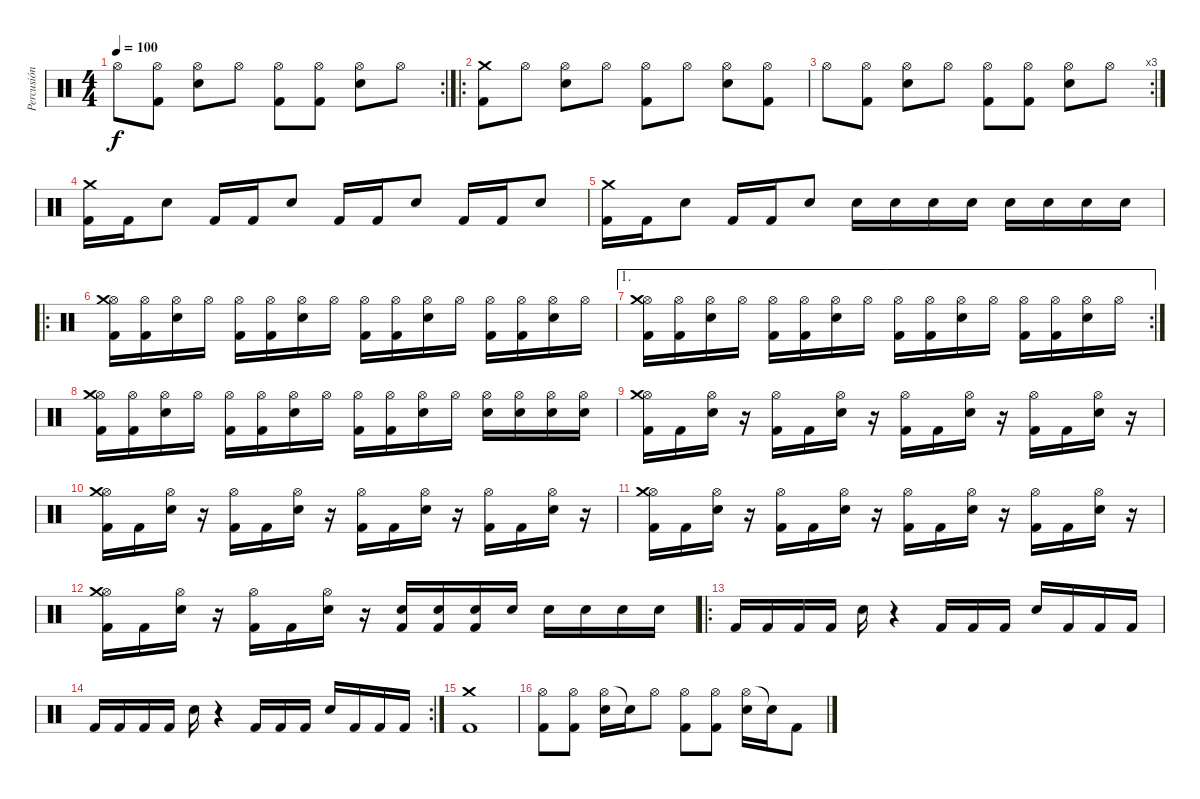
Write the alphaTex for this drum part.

\track ("Percusión" "Percusión") {instrument percussion}
\staff {score}
\articulation defaults
\rc 2
\ts (4 4)
\tempo 100
\clef neutral
\ks c "Hi-Hat (open)".8{dy f}
("Kick (hit) 2" "Hi-Hat (open)").8 ("Snare (hit) 2" "Hi-Hat (open)").8 "Hi-Hat (open)".8 ("Kick (hit) 2" "Hi-Hat (open)").8 ("Kick (hit) 2" "Hi-Hat (open)").8 ("Snare (hit) 2" "Hi-Hat (open)").8 "Hi-Hat (open)".8 |
\ro
("Kick (hit) 2" "Crash medium (hit)").8 "Hi-Hat (open)".8 ("Snare (hit) 2" "Hi-Hat (open)").8 "Hi-Hat (open)".8 ("Kick (hit) 2" "Hi-Hat (open)").8 "Hi-Hat (open)".8 ("Snare (hit) 2" "Hi-Hat (open)").8 ("Kick (hit) 2" "Hi-Hat (open)").8 |
\rc 3 "Hi-Hat (open)".8
("Kick (hit) 2" "Hi-Hat (open)").8 ("Snare (hit) 2" "Hi-Hat (open)").8 "Hi-Hat (open)".8 ("Kick (hit) 2" "Hi-Hat (open)").8 ("Kick (hit) 2" "Hi-Hat (open)").8 ("Snare (hit) 2" "Hi-Hat (open)").8 "Hi-Hat (open)".8 |
("Kick (hit) 2" "Crash medium (hit)").16 "Kick (hit) 2".16 "Snare (hit) 2".8 "Kick (hit) 2".16 "Kick (hit) 2".16 "Snare (hit) 2".8 "Kick (hit) 2".16 "Kick (hit) 2".16 "Snare (hit) 2".8 "Kick (hit) 2".16 "Kick (hit) 2".16 "Snare (hit) 2".8 |
("Kick (hit) 2" "Crash medium (hit)").16 "Kick (hit) 2".16 "Snare (hit) 2".8 "Kick (hit) 2".16 "Kick (hit) 2".16 "Snare (hit) 2".8 "Snare (hit) 2".16 "Snare (hit) 2".16 "Snare (hit) 2".16 "Snare (hit) 2".16 "Snare (hit) 2".16 "Snare (hit) 2".16 "Snare (hit) 2".16 "Snare (hit) 2".16 |
\ro
("Kick (hit) 2" "Hi-Hat (open)" "Crash medium (hit)").16 ("Kick (hit) 2" "Hi-Hat (open)").16 ("Snare (hit) 2" "Hi-Hat (open)").16 "Hi-Hat (open)".16 ("Kick (hit) 2" "Hi-Hat (open)").16 ("Kick (hit) 2" "Hi-Hat (open)").16 ("Snare (hit) 2" "Hi-Hat (open)").16 "Hi-Hat (open)".16 ("Kick (hit) 2" "Hi-Hat (open)").16 ("Kick (hit) 2" "Hi-Hat (open)").16 ("Snare (hit) 2" "Hi-Hat (open)").16 "Hi-Hat (open)".16 ("Kick (hit) 2" "Hi-Hat (open)").16 ("Kick (hit) 2" "Hi-Hat (open)").16 ("Snare (hit) 2" "Hi-Hat (open)").16 "Hi-Hat (open)".16 |
\ae 1
\rc 2
("Kick (hit) 2" "Hi-Hat (open)" "Crash medium (hit)").16 ("Kick (hit) 2" "Hi-Hat (open)").16 ("Snare (hit) 2" "Hi-Hat (open)").16 "Hi-Hat (open)".16 ("Kick (hit) 2" "Hi-Hat (open)").16 ("Kick (hit) 2" "Hi-Hat (open)").16 ("Snare (hit) 2" "Hi-Hat (open)").16 "Hi-Hat (open)".16 ("Kick (hit) 2" "Hi-Hat (open)").16 ("Kick (hit) 2" "Hi-Hat (open)").16 ("Snare (hit) 2" "Hi-Hat (open)").16 "Hi-Hat (open)".16 ("Kick (hit) 2" "Hi-Hat (open)").16 ("Kick (hit) 2" "Hi-Hat (open)").16 ("Snare (hit) 2" "Hi-Hat (open)").16 "Hi-Hat (open)".16 |
("Kick (hit) 2" "Hi-Hat (open)" "Crash medium (hit)").16 ("Kick (hit) 2" "Hi-Hat (open)").16 ("Snare (hit) 2" "Hi-Hat (open)").16 "Hi-Hat (open)".16 ("Kick (hit) 2" "Hi-Hat (open)").16 ("Kick (hit) 2" "Hi-Hat (open)").16 ("Snare (hit) 2" "Hi-Hat (open)").16 "Hi-Hat (open)".16 ("Kick (hit) 2" "Hi-Hat (open)").16 ("Kick (hit) 2" "Hi-Hat (open)").16 ("Snare (hit) 2" "Hi-Hat (open)").16 "Hi-Hat (open)".16 ("Snare (hit) 2" "Hi-Hat (open)").16 ("Snare (hit) 2" "Hi-Hat (open)").16 ("Snare (hit) 2" "Hi-Hat (open)").16 ("Snare (hit) 2" "Hi-Hat (open)").16 |
("Kick (hit) 2" "Hi-Hat (open)" "Crash medium (hit)").16 "Kick (hit) 2".16 ("Snare (hit) 2" "Hi-Hat (open)").16 r.16 ("Kick (hit) 2" "Hi-Hat (open)").16 "Kick (hit) 2".16 ("Snare (hit) 2" "Hi-Hat (open)").16 r.16 ("Kick (hit) 2" "Hi-Hat (open)").16 "Kick (hit) 2".16 ("Snare (hit) 2" "Hi-Hat (open)").16 r.16 ("Kick (hit) 2" "Hi-Hat (open)").16 "Kick (hit) 2".16 ("Snare (hit) 2" "Hi-Hat (open)").16 r.16 |
("Kick (hit) 2" "Hi-Hat (open)" "Crash medium (hit)").16 "Kick (hit) 2".16 ("Snare (hit) 2" "Hi-Hat (open)").16 r.16 ("Kick (hit) 2" "Hi-Hat (open)").16 "Kick (hit) 2".16 ("Snare (hit) 2" "Hi-Hat (open)").16 r.16 ("Kick (hit) 2" "Hi-Hat (open)").16 "Kick (hit) 2".16 ("Snare (hit) 2" "Hi-Hat (open)").16 r.16 ("Kick (hit) 2" "Hi-Hat (open)").16 "Kick (hit) 2".16 ("Snare (hit) 2" "Hi-Hat (open)").16 r.16 |
("Kick (hit) 2" "Hi-Hat (open)" "Crash medium (hit)").16 "Kick (hit) 2".16 ("Snare (hit) 2" "Hi-Hat (open)").16 r.16 ("Kick (hit) 2" "Hi-Hat (open)").16 "Kick (hit) 2".16 ("Snare (hit) 2" "Hi-Hat (open)").16 r.16 ("Kick (hit) 2" "Hi-Hat (open)").16 "Kick (hit) 2".16 ("Snare (hit) 2" "Hi-Hat (open)").16 r.16 ("Kick (hit) 2" "Hi-Hat (open)").16 "Kick (hit) 2".16 ("Snare (hit) 2" "Hi-Hat (open)").16 r.16 |
("Kick (hit) 2" "Hi-Hat (open)" "Crash medium (hit)").16 "Kick (hit) 2".16 ("Snare (hit) 2" "Hi-Hat (open)").16 r.16 ("Kick (hit) 2" "Hi-Hat (open)").16 "Kick (hit) 2".16 ("Snare (hit) 2" "Hi-Hat (open)").16 r.16 ("Snare (hit) 2" "Kick (hit) 2").16 ("Snare (hit) 2" "Kick (hit) 2").16 ("Snare (hit) 2" "Kick (hit) 2").16 "Snare (hit) 2".16 "Snare (hit) 2".16 "Snare (hit) 2".16 "Snare (hit) 2".16 "Snare (hit) 2".16 |
\ro "Kick (hit) 2".16 "Kick (hit) 2".16 "Kick (hit) 2".16 "Kick (hit) 2".16 "Snare (hit) 2".16
r.4 "Kick (hit) 2".16 "Kick (hit) 2".16 "Kick (hit) 2".16 "Snare (hit) 2".16 "Kick (hit) 2".16 "Kick (hit) 2".16 "Kick (hit) 2".16 |
\rc 2 "Kick (hit) 2".16 "Kick (hit) 2".16 "Kick (hit) 2".16 "Kick (hit) 2".16 "Snare (hit) 2".16
r.4 "Kick (hit) 2".16 "Kick (hit) 2".16 "Kick (hit) 2".16 "Snare (hit) 2".16 "Kick (hit) 2".16 "Kick (hit) 2".16 "Kick (hit) 2".16 |
("Kick (hit) 2" "Crash medium (hit)").1 |
("Hi-Hat (open)" "Kick (hit) 2").8 ("Hi-Hat (open)" "Kick (hit) 2").8 ("Hi-Hat (open)" "Snare (hit) 2").16 "Snare (hit)"{t}.16 "Hi-Hat (open)".8 ("Hi-Hat (open)" "Kick (hit) 2").8 ("Hi-Hat (open)" "Kick (hit) 2").8 ("Hi-Hat (open)" "Snare (hit) 2").16 "Snare (hit)"{t}.16 "Kick (hit) 2".8
